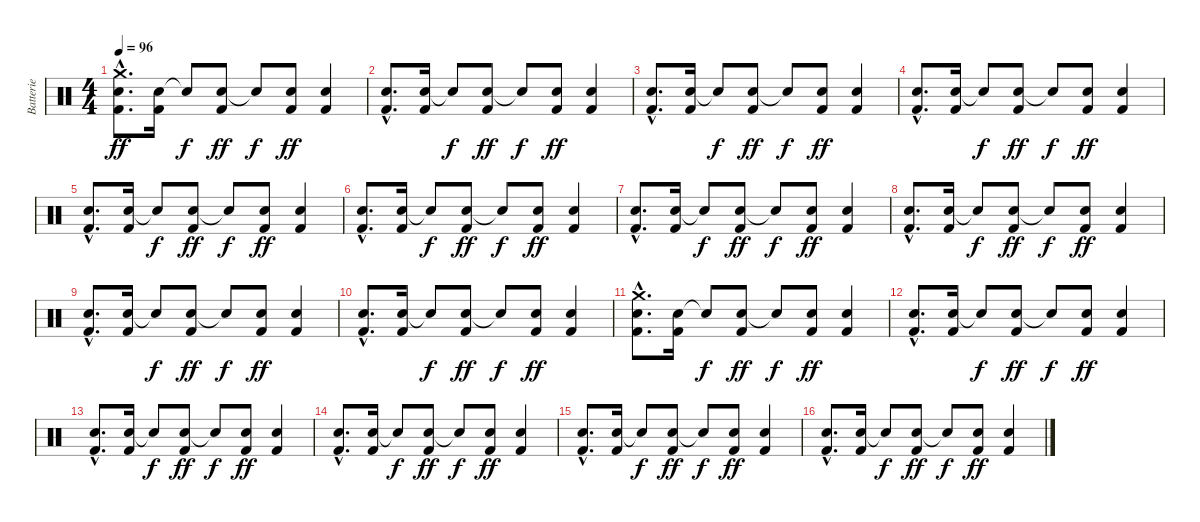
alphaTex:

\track ("Batterie" "Batterie") {instrument percussion}
\staff {score}
\articulation defaults
\ts (4 4)
\tempo 96
\clef neutral
\ks c
("Crash medium (hit)"{hac} "Snare (hit) 2"{hac} "Kick (hit) 2"{hac}).8{d dy ff} ("Snare (hit) 2" "Kick (hit) 2").16 "Snare (hit)"{t}.8{dy f} ("Snare (hit) 2" "Kick (hit) 2").8{dy ff} "Snare (hit)"{t}.8{dy f} ("Snare (hit) 2" "Kick (hit) 2").8{dy ff} ("Snare (hit) 2" "Kick (hit) 2").4 |
("Snare (hit) 2"{hac} "Kick (hit) 2"{hac}).8{d} ("Snare (hit) 2" "Kick (hit) 2").16 "Snare (hit)"{t}.8{dy f} ("Snare (hit) 2" "Kick (hit) 2").8{dy ff} "Snare (hit)"{t}.8{dy f} ("Snare (hit) 2" "Kick (hit) 2").8{dy ff} ("Snare (hit) 2" "Kick (hit) 2").4 |
("Snare (hit) 2"{hac} "Kick (hit) 2"{hac}).8{d} ("Snare (hit) 2" "Kick (hit) 2").16 "Snare (hit)"{t}.8{dy f} ("Snare (hit) 2" "Kick (hit) 2").8{dy ff} "Snare (hit)"{t}.8{dy f} ("Snare (hit) 2" "Kick (hit) 2").8{dy ff} ("Snare (hit) 2" "Kick (hit) 2").4 |
("Snare (hit) 2"{hac} "Kick (hit) 2"{hac}).8{d} ("Snare (hit) 2" "Kick (hit) 2").16 "Snare (hit)"{t}.8{dy f} ("Snare (hit) 2" "Kick (hit) 2").8{dy ff} "Snare (hit)"{t}.8{dy f} ("Snare (hit) 2" "Kick (hit) 2").8{dy ff} ("Snare (hit) 2" "Kick (hit) 2").4 |
("Snare (hit) 2"{hac} "Kick (hit) 2"{hac}).8{d} ("Snare (hit) 2" "Kick (hit) 2").16 "Snare (hit)"{t}.8{dy f} ("Snare (hit) 2" "Kick (hit) 2").8{dy ff} "Snare (hit)"{t}.8{dy f} ("Snare (hit) 2" "Kick (hit) 2").8{dy ff} ("Snare (hit) 2" "Kick (hit) 2").4 |
("Snare (hit) 2"{hac} "Kick (hit) 2"{hac}).8{d} ("Snare (hit) 2" "Kick (hit) 2").16 "Snare (hit)"{t}.8{dy f} ("Snare (hit) 2" "Kick (hit) 2").8{dy ff} "Snare (hit)"{t}.8{dy f} ("Snare (hit) 2" "Kick (hit) 2").8{dy ff} ("Snare (hit) 2" "Kick (hit) 2").4 |
("Snare (hit) 2"{hac} "Kick (hit) 2"{hac}).8{d} ("Snare (hit) 2" "Kick (hit) 2").16 "Snare (hit)"{t}.8{dy f} ("Snare (hit) 2" "Kick (hit) 2").8{dy ff} "Snare (hit)"{t}.8{dy f} ("Snare (hit) 2" "Kick (hit) 2").8{dy ff} ("Snare (hit) 2" "Kick (hit) 2").4 |
("Snare (hit) 2"{hac} "Kick (hit) 2"{hac}).8{d} ("Snare (hit) 2" "Kick (hit) 2").16 "Snare (hit)"{t}.8{dy f} ("Snare (hit) 2" "Kick (hit) 2").8{dy ff} "Snare (hit)"{t}.8{dy f} ("Snare (hit) 2" "Kick (hit) 2").8{dy ff} ("Snare (hit) 2" "Kick (hit) 2").4 |
("Snare (hit) 2"{hac} "Kick (hit) 2"{hac}).8{d} ("Snare (hit) 2" "Kick (hit) 2").16 "Snare (hit)"{t}.8{dy f} ("Snare (hit) 2" "Kick (hit) 2").8{dy ff} "Snare (hit)"{t}.8{dy f} ("Snare (hit) 2" "Kick (hit) 2").8{dy ff} ("Snare (hit) 2" "Kick (hit) 2").4 |
("Snare (hit) 2"{hac} "Kick (hit) 2"{hac}).8{d} ("Snare (hit) 2" "Kick (hit) 2").16 "Snare (hit)"{t}.8{dy f} ("Snare (hit) 2" "Kick (hit) 2").8{dy ff} "Snare (hit)"{t}.8{dy f} ("Snare (hit) 2" "Kick (hit) 2").8{dy ff} ("Snare (hit) 2" "Kick (hit) 2").4 |
("Crash medium (hit)"{hac} "Snare (hit) 2"{hac} "Kick (hit) 2"{hac}).8{d} ("Snare (hit) 2" "Kick (hit) 2").16 "Snare (hit)"{t}.8{dy f} ("Snare (hit) 2" "Kick (hit) 2").8{dy ff} "Snare (hit)"{t}.8{dy f} ("Snare (hit) 2" "Kick (hit) 2").8{dy ff} ("Snare (hit) 2" "Kick (hit) 2").4 |
("Snare (hit) 2"{hac} "Kick (hit) 2"{hac}).8{d} ("Snare (hit) 2" "Kick (hit) 2").16 "Snare (hit)"{t}.8{dy f} ("Snare (hit) 2" "Kick (hit) 2").8{dy ff} "Snare (hit)"{t}.8{dy f} ("Snare (hit) 2" "Kick (hit) 2").8{dy ff} ("Snare (hit) 2" "Kick (hit) 2").4 |
("Snare (hit) 2"{hac} "Kick (hit) 2"{hac}).8{d} ("Snare (hit) 2" "Kick (hit) 2").16 "Snare (hit)"{t}.8{dy f} ("Snare (hit) 2" "Kick (hit) 2").8{dy ff} "Snare (hit)"{t}.8{dy f} ("Snare (hit) 2" "Kick (hit) 2").8{dy ff} ("Snare (hit) 2" "Kick (hit) 2").4 |
("Snare (hit) 2"{hac} "Kick (hit) 2"{hac}).8{d} ("Snare (hit) 2" "Kick (hit) 2").16 "Snare (hit)"{t}.8{dy f} ("Snare (hit) 2" "Kick (hit) 2").8{dy ff} "Snare (hit)"{t}.8{dy f} ("Snare (hit) 2" "Kick (hit) 2").8{dy ff} ("Snare (hit) 2" "Kick (hit) 2").4 |
("Snare (hit) 2"{hac} "Kick (hit) 2"{hac}).8{d} ("Snare (hit) 2" "Kick (hit) 2").16 "Snare (hit)"{t}.8{dy f} ("Snare (hit) 2" "Kick (hit) 2").8{dy ff} "Snare (hit)"{t}.8{dy f} ("Snare (hit) 2" "Kick (hit) 2").8{dy ff} ("Snare (hit) 2" "Kick (hit) 2").4 |
("Snare (hit) 2"{hac} "Kick (hit) 2"{hac}).8{d} ("Snare (hit) 2" "Kick (hit) 2").16 "Snare (hit)"{t}.8{dy f} ("Snare (hit) 2" "Kick (hit) 2").8{dy ff} "Snare (hit)"{t}.8{dy f} ("Snare (hit) 2" "Kick (hit) 2").8{dy ff} ("Snare (hit) 2" "Kick (hit) 2").4
